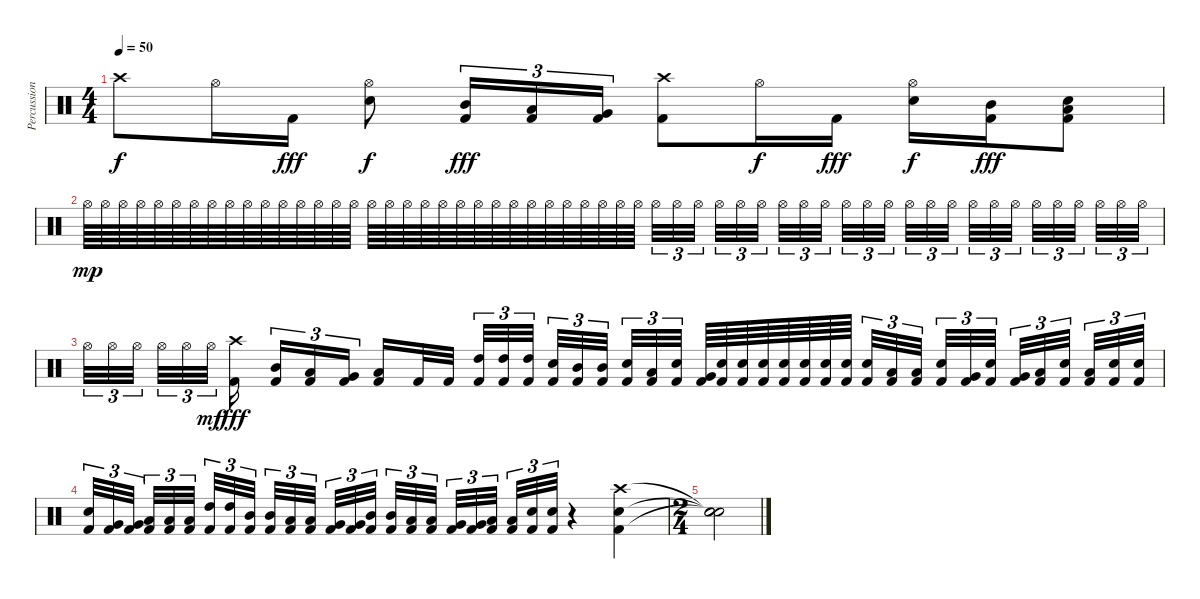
\track ("Percussion" "Percussion") {instrument percussion}
\staff {score}
\articulation defaults
\ts (4 4)
\tempo 50
\clef neutral
\ks c "Crash high (hit)".8{dy f} "Hi-Hat (open)".16 "Kick (hit) 2".16{dy fff}
("Hi-Hat (open)" "Snare (hit) 2").8{dy f} ("Mid Tom (hit)" "Kick (hit) 2").16{tu (3 2) dy fff} ("Low Tom (hit)" "Kick (hit) 2").16{tu (3 2)} ("Very Low Tom (hit)" "Kick (hit) 2").16{tu (3 2)} ("Crash high (hit)" "Kick (hit) 2").8 "Hi-Hat (open)".16{dy f} "Kick (hit) 2".16{dy fff} ("Hi-Hat (open)" "Snare (hit) 2").16{dy f} ("Mid Tom (hit)" "Kick (hit) 2").16{dy fff} ("Low Tom (hit)" "Snare (hit) 2" "Kick (hit) 2").8 |
"Hi-Hat (open)".64{dy mp} "Hi-Hat (open)".64 "Hi-Hat (open)".64 "Hi-Hat (open)".64 "Hi-Hat (open)".64 "Hi-Hat (open)".64 "Hi-Hat (open)".64 "Hi-Hat (open)".64 "Hi-Hat (open)".64 "Hi-Hat (open)".64 "Hi-Hat (open)".64 "Hi-Hat (open)".64 "Hi-Hat (open)".64 "Hi-Hat (open)".64 "Hi-Hat (open)".64 "Hi-Hat (open)".64 "Hi-Hat (open)".64 "Hi-Hat (open)".64 "Hi-Hat (open)".64 "Hi-Hat (open)".64 "Hi-Hat (open)".64 "Hi-Hat (open)".64 "Hi-Hat (open)".64 "Hi-Hat (open)".64 "Hi-Hat (open)".64 "Hi-Hat (open)".64 "Hi-Hat (open)".64 "Hi-Hat (open)".64 "Hi-Hat (open)".64 "Hi-Hat (open)".64 "Hi-Hat (open)".64 "Hi-Hat (open)".64 "Hi-Hat (open)".32{tu (3 2)} "Hi-Hat (open)".32{tu (3 2)} "Hi-Hat (open)".32{tu (3 2)} "Hi-Hat (open)".32{tu (3 2)} "Hi-Hat (open)".32{tu (3 2)} "Hi-Hat (open)".32{tu (3 2)} "Hi-Hat (open)".32{tu (3 2)} "Hi-Hat (open)".32{tu (3 2)} "Hi-Hat (open)".32{tu (3 2)} "Hi-Hat (open)".32{tu (3 2)} "Hi-Hat (open)".32{tu (3 2)} "Hi-Hat (open)".32{tu (3 2)} "Hi-Hat (open)".32{tu (3 2)} "Hi-Hat (open)".32{tu (3 2)} "Hi-Hat (open)".32{tu (3 2)} "Hi-Hat (open)".32{tu (3 2)} "Hi-Hat (open)".32{tu (3 2)} "Hi-Hat (open)".32{tu (3 2)} "Hi-Hat (open)".32{tu (3 2)} "Hi-Hat (open)".32{tu (3 2)} "Hi-Hat (open)".32{tu (3 2)} "Hi-Hat (open)".32{tu (3 2)} "Hi-Hat (open)".32{tu (3 2)} "Hi-Hat (open)".32{tu (3 2)} |
"Hi-Hat (open)".32{tu (3 2)} "Hi-Hat (open)".32{tu (3 2)} "Hi-Hat (open)".32{tu (3 2)} "Hi-Hat (open)".32{tu (3 2)} "Hi-Hat (open)".32{tu (3 2)} "Hi-Hat (open)".32{tu (3 2) dy mf} ("Crash high (hit)" "Kick (hit) 2").16{dy fff} ("Mid Tom (hit)" "Kick (hit) 2").16{tu (3 2)} ("Low Tom (hit)" "Kick (hit) 2").16{tu (3 2)} ("Very Low Tom (hit)" "Kick (hit) 2").16{tu (3 2)} ("Low Floor Tom (hit)" "Kick (hit) 2").16 "Kick (hit) 2".32 "Kick (hit) 2".32 ("High Tom (hit)" "Kick (hit) 2").32{tu (3 2)} ("High Tom (hit)" "Kick (hit) 2").32{tu (3 2)} ("High Tom (hit)" "Kick (hit) 2").32{tu (3 2)} ("Snare (hit) 2" "Kick (hit) 2").32{tu (3 2)} ("Mid Tom (hit)" "Kick (hit) 2").32{tu (3 2)} ("Mid Tom (hit)" "Kick (hit) 2").32{tu (3 2)} ("Snare (hit) 2" "Kick (hit) 2").32{tu (3 2)} ("Low Tom (hit)" "Kick (hit) 2").32{tu (3 2)} ("Snare (hit) 2" "Kick (hit) 2").32{tu (3 2)} ("Very Low Tom (hit)" "Kick (hit) 2").64 ("Snare (hit) 2" "Kick (hit) 2").64 ("Snare (hit) 2" "Kick (hit) 2").64 ("Snare (hit) 2" "Kick (hit) 2").64 ("Snare (hit) 2" "Kick (hit) 2").64 ("Snare (hit) 2" "Kick (hit) 2").64 ("Snare (hit) 2" "Kick (hit) 2").64 ("Snare (hit) 2" "Kick (hit) 2").64 ("Snare (hit) 2" "Kick (hit) 2").32{tu (3 2)} ("Low Tom (hit)" "Kick (hit) 2").32{tu (3 2)} ("Low Tom (hit)" "Kick (hit) 2").32{tu (3 2)} ("Snare (hit) 2" "Kick (hit) 2").32{tu (3 2)} ("Very Low Tom (hit)" "Kick (hit) 2").32{tu (3 2)} ("Snare (hit) 2" "Kick (hit) 2").32{tu (3 2)} ("Very Low Tom (hit)" "Kick (hit) 2").32{tu (3 2)} ("Low Floor Tom (hit)" "Kick (hit) 2").32{tu (3 2)} ("Snare (hit) 2" "Kick (hit) 2").32{tu (3 2)} ("Low Tom (hit)" "Kick (hit) 2").32{tu (3 2)} ("Snare (hit) 2" "Kick (hit) 2").32{tu (3 2)} ("Snare (hit) 2" "Kick (hit) 2").32{tu (3 2)} |
("Snare (hit) 2" "Kick (hit) 2").32{tu (3 2)} ("Very Low Tom (hit)" "Kick (hit) 2").32{tu (3 2)} ("Very Low Tom (hit)" "Kick (hit) 2").32{tu (3 2)} ("Low Floor Tom (hit)" "Kick (hit) 2").32{tu (3 2)} ("Low Floor Tom (hit)" "Kick (hit) 2").32{tu (3 2)} ("Low Floor Tom (hit)" "Kick (hit) 2").32{tu (3 2)} ("High Tom (hit)" "Kick (hit) 2").32{tu (3 2)} ("High Tom (hit)" "Kick (hit) 2").32{tu (3 2)} ("Mid Tom (hit)" "Kick (hit) 2").32{tu (3 2)} ("Mid Tom (hit)" "Kick (hit) 2").32{tu (3 2)} ("Low Tom (hit)" "Kick (hit) 2").32{tu (3 2)} ("Low Tom (hit)" "Kick (hit) 2").32{tu (3 2)} ("Very Low Tom (hit)" "Kick (hit) 2").32{tu (3 2)} ("Very Low Tom (hit)" "Kick (hit) 2").32{tu (3 2)} ("Mid Tom (hit)" "Kick (hit) 2").32{tu (3 2)} ("Mid Tom (hit)" "Kick (hit) 2").32{tu (3 2)} ("Low Tom (hit)" "Kick (hit) 2").32{tu (3 2)} ("Low Tom (hit)" "Kick (hit) 2").32{tu (3 2)} ("Very Low Tom (hit)" "Kick (hit) 2").32{tu (3 2)} ("Very Low Tom (hit)" "Kick (hit) 2").32{tu (3 2)} ("Low Floor Tom (hit)" "Kick (hit) 2").32{tu (3 2)} ("Low Floor Tom (hit)" "Kick (hit) 2").32{tu (3 2)} ("Snare (hit) 2" "Kick (hit) 2").32{tu (3 2)} ("Snare (hit) 2" "Kick (hit) 2").32{tu (3 2)} r.4 ("Crash high (hit)" "Snare (hit) 2" "Kick (hit) 2").4 |
\ts (2 4)
("Snare (hit)"{t} "Snare (hit)"{t} "Snare (hit)"{t}).2
